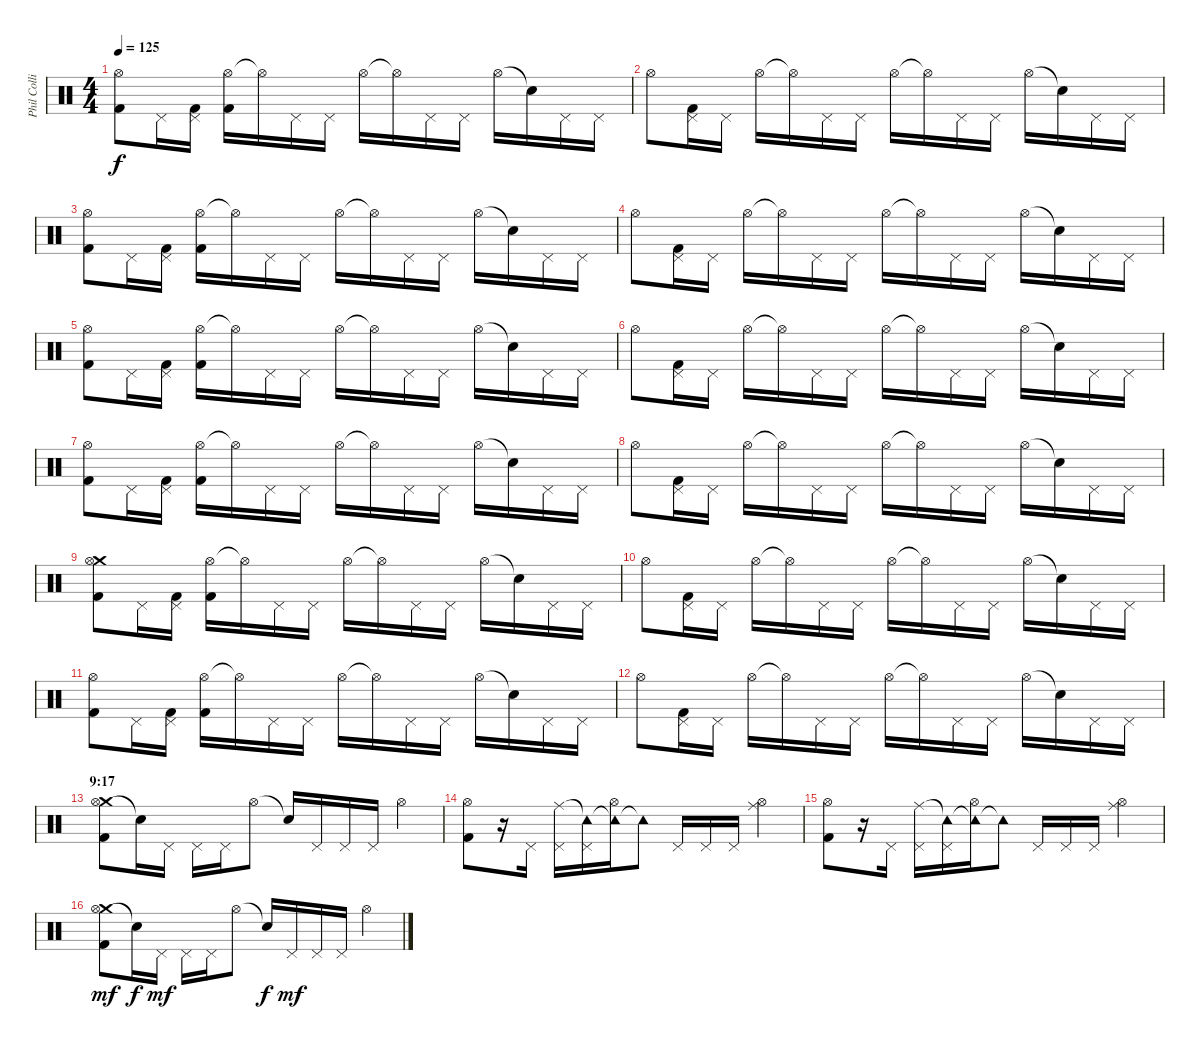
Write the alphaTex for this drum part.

\track ("Phil Collins (drums)" "Phil Colli") {instrument percussion}
\staff {score}
\articulation defaults
\ts (4 4)
\tempo 125
\clef neutral
\ks c
("Hi-Hat (open)" "Kick (hit) 2").8{dy f} "Pedal Hi-Hat (hit)".16 ("Pedal Hi-Hat (hit)" "Kick (hit) 2").16 ("Hi-Hat (open)" "Kick (hit) 2").16 "Hi-Hat (open)"{t}.16 "Pedal Hi-Hat (hit)".16 "Pedal Hi-Hat (hit)".16 "Hi-Hat (open)".16 "Hi-Hat (open)"{t}.16 "Pedal Hi-Hat (hit)".16 "Pedal Hi-Hat (hit)".16 "Hi-Hat (open)".16 "Snare (hit)"{t}.16 "Pedal Hi-Hat (hit)".16 "Pedal Hi-Hat (hit)".16 |
"Hi-Hat (open)".8 ("Pedal Hi-Hat (hit)" "Kick (hit) 2").16 "Pedal Hi-Hat (hit)".16 "Hi-Hat (open)".16 "Hi-Hat (open)"{t}.16 "Pedal Hi-Hat (hit)".16 "Pedal Hi-Hat (hit)".16 "Hi-Hat (open)".16 "Hi-Hat (open)"{t}.16 "Pedal Hi-Hat (hit)".16 "Pedal Hi-Hat (hit)".16 "Hi-Hat (open)".16 "Snare (hit)"{t}.16 "Pedal Hi-Hat (hit)".16 "Pedal Hi-Hat (hit)".16 |
("Hi-Hat (open)" "Kick (hit) 2").8 "Pedal Hi-Hat (hit)".16 ("Pedal Hi-Hat (hit)" "Kick (hit) 2").16 ("Hi-Hat (open)" "Kick (hit) 2").16 "Hi-Hat (open)"{t}.16 "Pedal Hi-Hat (hit)".16 "Pedal Hi-Hat (hit)".16 "Hi-Hat (open)".16 "Hi-Hat (open)"{t}.16 "Pedal Hi-Hat (hit)".16 "Pedal Hi-Hat (hit)".16 "Hi-Hat (open)".16 "Snare (hit)"{t}.16 "Pedal Hi-Hat (hit)".16 "Pedal Hi-Hat (hit)".16 |
"Hi-Hat (open)".8 ("Pedal Hi-Hat (hit)" "Kick (hit) 2").16 "Pedal Hi-Hat (hit)".16 "Hi-Hat (open)".16 "Hi-Hat (open)"{t}.16 "Pedal Hi-Hat (hit)".16 "Pedal Hi-Hat (hit)".16 "Hi-Hat (open)".16 "Hi-Hat (open)"{t}.16 "Pedal Hi-Hat (hit)".16 "Pedal Hi-Hat (hit)".16 "Hi-Hat (open)".16 "Snare (hit)"{t}.16 "Pedal Hi-Hat (hit)".16 "Pedal Hi-Hat (hit)".16 |
("Hi-Hat (open)" "Kick (hit) 2").8 "Pedal Hi-Hat (hit)".16 ("Pedal Hi-Hat (hit)" "Kick (hit) 2").16 ("Hi-Hat (open)" "Kick (hit) 2").16 "Hi-Hat (open)"{t}.16 "Pedal Hi-Hat (hit)".16 "Pedal Hi-Hat (hit)".16 "Hi-Hat (open)".16 "Hi-Hat (open)"{t}.16 "Pedal Hi-Hat (hit)".16 "Pedal Hi-Hat (hit)".16 "Hi-Hat (open)".16 "Snare (hit)"{t}.16 "Pedal Hi-Hat (hit)".16 "Pedal Hi-Hat (hit)".16 |
"Hi-Hat (open)".8 ("Pedal Hi-Hat (hit)" "Kick (hit) 2").16 "Pedal Hi-Hat (hit)".16 "Hi-Hat (open)".16 "Hi-Hat (open)"{t}.16 "Pedal Hi-Hat (hit)".16 "Pedal Hi-Hat (hit)".16 "Hi-Hat (open)".16 "Hi-Hat (open)"{t}.16 "Pedal Hi-Hat (hit)".16 "Pedal Hi-Hat (hit)".16 "Hi-Hat (open)".16 "Snare (hit)"{t}.16 "Pedal Hi-Hat (hit)".16 "Pedal Hi-Hat (hit)".16 |
("Hi-Hat (open)" "Kick (hit) 2").8 "Pedal Hi-Hat (hit)".16 ("Pedal Hi-Hat (hit)" "Kick (hit) 2").16 ("Hi-Hat (open)" "Kick (hit) 2").16 "Hi-Hat (open)"{t}.16 "Pedal Hi-Hat (hit)".16 "Pedal Hi-Hat (hit)".16 "Hi-Hat (open)".16 "Hi-Hat (open)"{t}.16 "Pedal Hi-Hat (hit)".16 "Pedal Hi-Hat (hit)".16 "Hi-Hat (open)".16 "Snare (hit)"{t}.16 "Pedal Hi-Hat (hit)".16 "Pedal Hi-Hat (hit)".16 |
"Hi-Hat (open)".8 ("Pedal Hi-Hat (hit)" "Kick (hit) 2").16 "Pedal Hi-Hat (hit)".16 "Hi-Hat (open)".16 "Hi-Hat (open)"{t}.16 "Pedal Hi-Hat (hit)".16 "Pedal Hi-Hat (hit)".16 "Hi-Hat (open)".16 "Hi-Hat (open)"{t}.16 "Pedal Hi-Hat (hit)".16 "Pedal Hi-Hat (hit)".16 "Hi-Hat (open)".16 "Snare (hit)"{t}.16 "Pedal Hi-Hat (hit)".16 "Pedal Hi-Hat (hit)".16 |
("Crash medium (hit)" "Hi-Hat (open)" "Kick (hit) 2").8 "Pedal Hi-Hat (hit)".16 ("Pedal Hi-Hat (hit)" "Kick (hit) 2").16 ("Hi-Hat (open)" "Kick (hit) 2").16 "Hi-Hat (open)"{t}.16 "Pedal Hi-Hat (hit)".16 "Pedal Hi-Hat (hit)".16 "Hi-Hat (open)".16 "Hi-Hat (open)"{t}.16 "Pedal Hi-Hat (hit)".16 "Pedal Hi-Hat (hit)".16 "Hi-Hat (open)".16 "Snare (hit)"{t}.16 "Pedal Hi-Hat (hit)".16 "Pedal Hi-Hat (hit)".16 |
"Hi-Hat (open)".8 ("Pedal Hi-Hat (hit)" "Kick (hit) 2").16 "Pedal Hi-Hat (hit)".16 "Hi-Hat (open)".16 "Hi-Hat (open)"{t}.16 "Pedal Hi-Hat (hit)".16 "Pedal Hi-Hat (hit)".16 "Hi-Hat (open)".16 "Hi-Hat (open)"{t}.16 "Pedal Hi-Hat (hit)".16 "Pedal Hi-Hat (hit)".16 "Hi-Hat (open)".16 "Snare (hit)"{t}.16 "Pedal Hi-Hat (hit)".16 "Pedal Hi-Hat (hit)".16 |
("Hi-Hat (open)" "Kick (hit) 2").8 "Pedal Hi-Hat (hit)".16 ("Pedal Hi-Hat (hit)" "Kick (hit) 2").16 ("Hi-Hat (open)" "Kick (hit) 2").16 "Hi-Hat (open)"{t}.16 "Pedal Hi-Hat (hit)".16 "Pedal Hi-Hat (hit)".16 "Hi-Hat (open)".16 "Hi-Hat (open)"{t}.16 "Pedal Hi-Hat (hit)".16 "Pedal Hi-Hat (hit)".16 "Hi-Hat (open)".16 "Snare (hit)"{t}.16 "Pedal Hi-Hat (hit)".16 "Pedal Hi-Hat (hit)".16 |
"Hi-Hat (open)".8 ("Pedal Hi-Hat (hit)" "Kick (hit) 2").16 "Pedal Hi-Hat (hit)".16 "Hi-Hat (open)".16 "Hi-Hat (open)"{t}.16 "Pedal Hi-Hat (hit)".16 "Pedal Hi-Hat (hit)".16 "Hi-Hat (open)".16 "Hi-Hat (open)"{t}.16 "Pedal Hi-Hat (hit)".16 "Pedal Hi-Hat (hit)".16 "Hi-Hat (open)".16 "Snare (hit)"{t}.16 "Pedal Hi-Hat (hit)".16 "Pedal Hi-Hat (hit)".16 |
\section ("" "9:17")
("Crash medium (hit)" "Hi-Hat (open)" "Kick (hit) 2").8 "Snare (hit)"{t}.16 "Pedal Hi-Hat (hit)".16 "Pedal Hi-Hat (hit)".16 "Pedal Hi-Hat (hit)".16 "Hi-Hat (open)".8 "Snare (hit)"{t}.16 "Pedal Hi-Hat (hit)".16 "Pedal Hi-Hat (hit)".16 "Pedal Hi-Hat (hit)".16 "Hi-Hat (open)".4 |
("Hi-Hat (open)" "Kick (hit) 2").8 r.16 "Pedal Hi-Hat (hit)".16 ("Ride (middle)" "Pedal Hi-Hat (hit)").16 ("Tambourine (hit)"{t} "Pedal Hi-Hat (hit)").16 ("Tambourine (hit)"{t} "Hi-Hat (open)").16 "Tambourine (hit)"{t}.8 "Pedal Hi-Hat (hit)".16 "Pedal Hi-Hat (hit)".16 "Pedal Hi-Hat (hit)".16 ("Ride (middle)" "Hi-Hat (open)").4 |
("Hi-Hat (open)" "Kick (hit) 2").8 r.16 "Pedal Hi-Hat (hit)".16 ("Ride (middle)" "Pedal Hi-Hat (hit)").16 ("Tambourine (hit)"{t} "Pedal Hi-Hat (hit)").16 ("Tambourine (hit)"{t} "Hi-Hat (open)").16 "Tambourine (hit)"{t}.8 "Pedal Hi-Hat (hit)".16 "Pedal Hi-Hat (hit)".16 "Pedal Hi-Hat (hit)".16 ("Ride (middle)" "Hi-Hat (open)").4 |
("Crash medium (hit)" "Hi-Hat (open)" "Kick (hit) 2").8{dy mf} "Snare (hit)"{t}.16{dy f} "Pedal Hi-Hat (hit)".16{dy mf} "Pedal Hi-Hat (hit)".16 "Pedal Hi-Hat (hit)".16 "Hi-Hat (open)".8 "Snare (hit)"{t}.16{dy f} "Pedal Hi-Hat (hit)".16{dy mf} "Pedal Hi-Hat (hit)".16 "Pedal Hi-Hat (hit)".16 "Hi-Hat (open)".4
